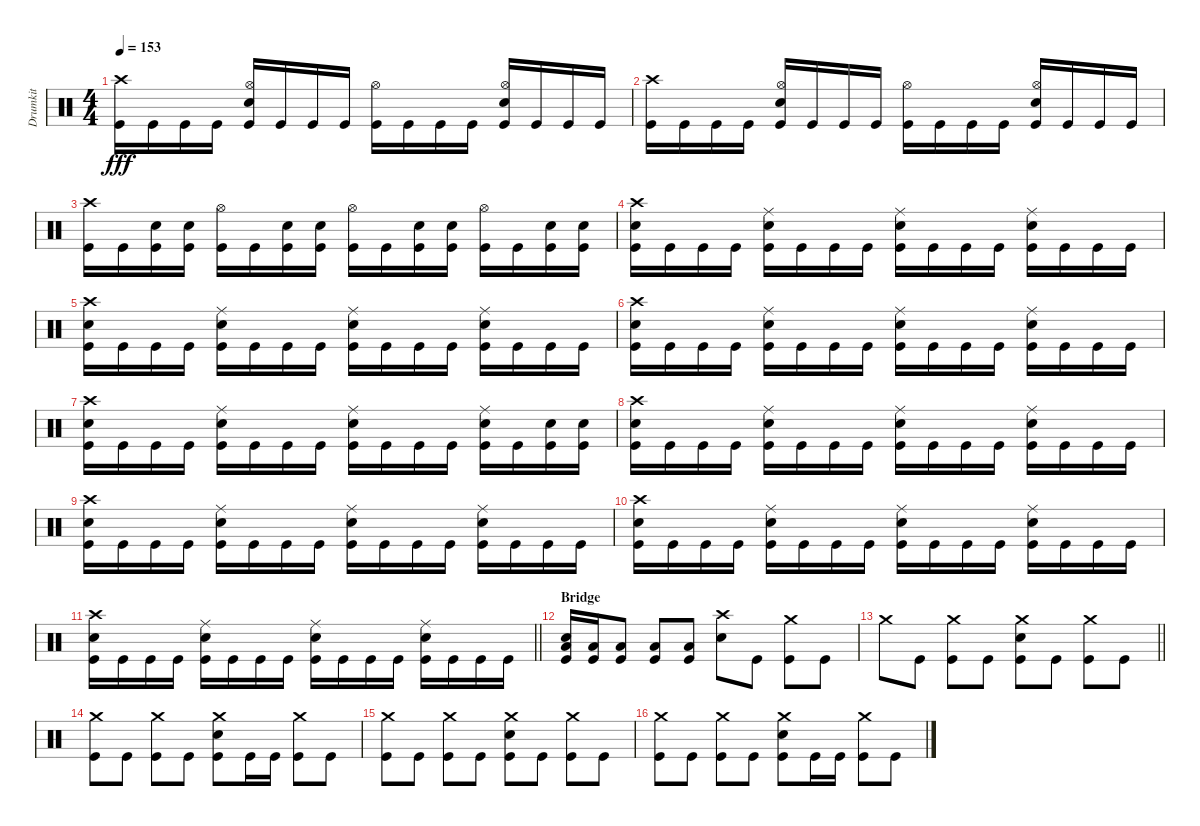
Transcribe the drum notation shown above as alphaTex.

\track ("Drumkit" "Drumkit") {instrument percussion}
\staff {score}
\articulation defaults
\ts (4 4)
\tempo 153
\clef neutral
\ks c
("Crash high (hit)" "Kick (hit)").16{dy fff} "Kick (hit)".16 "Kick (hit)".16 "Kick (hit)".16 ("Hi-Hat (open)" "Snare (hit) 2" "Kick (hit)").16 "Kick (hit)".16 "Kick (hit)".16 "Kick (hit)".16 ("Hi-Hat (open)" "Kick (hit)").16 "Kick (hit)".16 "Kick (hit)".16 "Kick (hit)".16 ("Hi-Hat (open)" "Snare (hit) 2" "Kick (hit)").16 "Kick (hit)".16 "Kick (hit)".16 "Kick (hit)".16 |
("Crash high (hit)" "Kick (hit)").16 "Kick (hit)".16 "Kick (hit)".16 "Kick (hit)".16 ("Hi-Hat (open)" "Snare (hit) 2" "Kick (hit)").16 "Kick (hit)".16 "Kick (hit)".16 "Kick (hit)".16 ("Hi-Hat (open)" "Kick (hit)").16 "Kick (hit)".16 "Kick (hit)".16 "Kick (hit)".16 ("Hi-Hat (open)" "Snare (hit) 2" "Kick (hit)").16 "Kick (hit)".16 "Kick (hit)".16 "Kick (hit)".16 |
("Crash high (hit)" "Kick (hit)").16 "Kick (hit)".16 ("Snare (hit) 2" "Kick (hit)").16 ("Snare (hit) 2" "Kick (hit)").16 ("Hi-Hat (open)" "Kick (hit)").16 "Kick (hit)".16 ("Snare (hit) 2" "Kick (hit)").16 ("Snare (hit) 2" "Kick (hit)").16 ("Hi-Hat (open)" "Kick (hit)").16 "Kick (hit)".16 ("Snare (hit) 2" "Kick (hit)").16 ("Snare (hit) 2" "Kick (hit)").16 ("Hi-Hat (open)" "Kick (hit)").16 "Kick (hit)".16 ("Snare (hit) 2" "Kick (hit)").16 ("Snare (hit) 2" "Kick (hit)").16 |
("Crash high (hit)" "Snare (hit) 2" "Kick (hit)").16 "Kick (hit)".16 "Kick (hit)".16 "Kick (hit)".16 ("Ride (middle)" "Snare (hit) 2" "Kick (hit)").16 "Kick (hit)".16 "Kick (hit)".16 "Kick (hit)".16 ("Ride (middle)" "Snare (hit) 2" "Kick (hit)").16 "Kick (hit)".16 "Kick (hit)".16 "Kick (hit)".16 ("Ride (middle)" "Snare (hit) 2" "Kick (hit)").16 "Kick (hit)".16 "Kick (hit)".16 "Kick (hit)".16 |
("Crash high (hit)" "Snare (hit) 2" "Kick (hit)").16 "Kick (hit)".16 "Kick (hit)".16 "Kick (hit)".16 ("Ride (middle)" "Snare (hit) 2" "Kick (hit)").16 "Kick (hit)".16 "Kick (hit)".16 "Kick (hit)".16 ("Ride (middle)" "Snare (hit) 2" "Kick (hit)").16 "Kick (hit)".16 "Kick (hit)".16 "Kick (hit)".16 ("Ride (middle)" "Snare (hit) 2" "Kick (hit)").16 "Kick (hit)".16 "Kick (hit)".16 "Kick (hit)".16 |
("Crash high (hit)" "Snare (hit) 2" "Kick (hit)").16 "Kick (hit)".16 "Kick (hit)".16 "Kick (hit)".16 ("Ride (middle)" "Snare (hit) 2" "Kick (hit)").16 "Kick (hit)".16 "Kick (hit)".16 "Kick (hit)".16 ("Ride (middle)" "Snare (hit) 2" "Kick (hit)").16 "Kick (hit)".16 "Kick (hit)".16 "Kick (hit)".16 ("Ride (middle)" "Snare (hit) 2" "Kick (hit)").16 "Kick (hit)".16 "Kick (hit)".16 "Kick (hit)".16 |
("Crash high (hit)" "Snare (hit) 2" "Kick (hit)").16 "Kick (hit)".16 "Kick (hit)".16 "Kick (hit)".16 ("Ride (middle)" "Snare (hit) 2" "Kick (hit)").16 "Kick (hit)".16 "Kick (hit)".16 "Kick (hit)".16 ("Ride (middle)" "Snare (hit) 2" "Kick (hit)").16 "Kick (hit)".16 "Kick (hit)".16 "Kick (hit)".16 ("Ride (middle)" "Snare (hit) 2" "Kick (hit)").16 "Kick (hit)".16 ("Snare (hit) 2" "Kick (hit)").16 ("Snare (hit) 2" "Kick (hit)").16 |
("Crash high (hit)" "Snare (hit) 2" "Kick (hit)").16 "Kick (hit)".16 "Kick (hit)".16 "Kick (hit)".16 ("Ride (middle)" "Snare (hit) 2" "Kick (hit)").16 "Kick (hit)".16 "Kick (hit)".16 "Kick (hit)".16 ("Ride (middle)" "Snare (hit) 2" "Kick (hit)").16 "Kick (hit)".16 "Kick (hit)".16 "Kick (hit)".16 ("Ride (middle)" "Snare (hit) 2" "Kick (hit)").16 "Kick (hit)".16 "Kick (hit)".16 "Kick (hit)".16 |
("Crash high (hit)" "Snare (hit) 2" "Kick (hit)").16 "Kick (hit)".16 "Kick (hit)".16 "Kick (hit)".16 ("Ride (middle)" "Snare (hit) 2" "Kick (hit)").16 "Kick (hit)".16 "Kick (hit)".16 "Kick (hit)".16 ("Ride (middle)" "Snare (hit) 2" "Kick (hit)").16 "Kick (hit)".16 "Kick (hit)".16 "Kick (hit)".16 ("Ride (middle)" "Snare (hit) 2" "Kick (hit)").16 "Kick (hit)".16 "Kick (hit)".16 "Kick (hit)".16 |
("Crash high (hit)" "Snare (hit) 2" "Kick (hit)").16 "Kick (hit)".16 "Kick (hit)".16 "Kick (hit)".16 ("Ride (middle)" "Snare (hit) 2" "Kick (hit)").16 "Kick (hit)".16 "Kick (hit)".16 "Kick (hit)".16 ("Ride (middle)" "Snare (hit) 2" "Kick (hit)").16 "Kick (hit)".16 "Kick (hit)".16 "Kick (hit)".16 ("Ride (middle)" "Snare (hit) 2" "Kick (hit)").16 "Kick (hit)".16 "Kick (hit)".16 "Kick (hit)".16 |
\barLineRight lightlight
("Crash high (hit)" "Snare (hit) 2" "Kick (hit)").16 "Kick (hit)".16 "Kick (hit)".16 "Kick (hit)".16 ("Ride (middle)" "Snare (hit) 2" "Kick (hit)").16 "Kick (hit)".16 "Kick (hit)".16 "Kick (hit)".16 ("Ride (middle)" "Snare (hit) 2" "Kick (hit)").16 "Kick (hit)".16 "Kick (hit)".16 "Kick (hit)".16 ("Ride (middle)" "Snare (hit) 2" "Kick (hit)").16 "Kick (hit)".16 "Kick (hit)".16 "Kick (hit)".16 |
\section ("" "Bridge ")
("Low Floor Tom (hit)" "Snare (hit) 2" "Kick (hit)").16 ("Low Floor Tom (hit)" "Kick (hit)").16 ("Low Floor Tom (hit)" "Kick (hit)").8 ("Low Floor Tom (hit)" "Kick (hit)").8 ("Low Floor Tom (hit)" "Kick (hit)").8 ("Crash high (hit)" "Snare (hit) 2").8 "Kick (hit)".8 ("Crash medium (hit)" "Kick (hit)").8 "Kick (hit)".8 |
\barLineRight lightlight "Crash medium (hit)".8 "Kick (hit)".8
("Crash medium (hit)" "Kick (hit)").8 "Kick (hit)".8 ("Crash medium (hit)" "Snare (hit) 2" "Kick (hit)").8 "Kick (hit)".8 ("Crash medium (hit)" "Kick (hit)").8 "Kick (hit)".8 |
("Crash medium (hit)" "Kick (hit)").8 "Kick (hit)".8 ("Crash medium (hit)" "Kick (hit)").8 "Kick (hit)".8 ("Crash medium (hit)" "Snare (hit) 2" "Kick (hit)").8 "Kick (hit)".16 "Kick (hit)".16 ("Crash medium (hit)" "Kick (hit)").8 "Kick (hit)".8 |
("Crash medium (hit)" "Kick (hit)").8 "Kick (hit)".8 ("Crash medium (hit)" "Kick (hit)").8 "Kick (hit)".8 ("Crash medium (hit)" "Snare (hit) 2" "Kick (hit)").8 "Kick (hit)".8 ("Crash medium (hit)" "Kick (hit)").8 "Kick (hit)".8 |
("Crash medium (hit)" "Kick (hit)").8 "Kick (hit)".8 ("Crash medium (hit)" "Kick (hit)").8 "Kick (hit)".8 ("Crash medium (hit)" "Snare (hit) 2" "Kick (hit)").8 "Kick (hit)".16 "Kick (hit)".16 ("Crash medium (hit)" "Kick (hit)").8 "Kick (hit)".8
